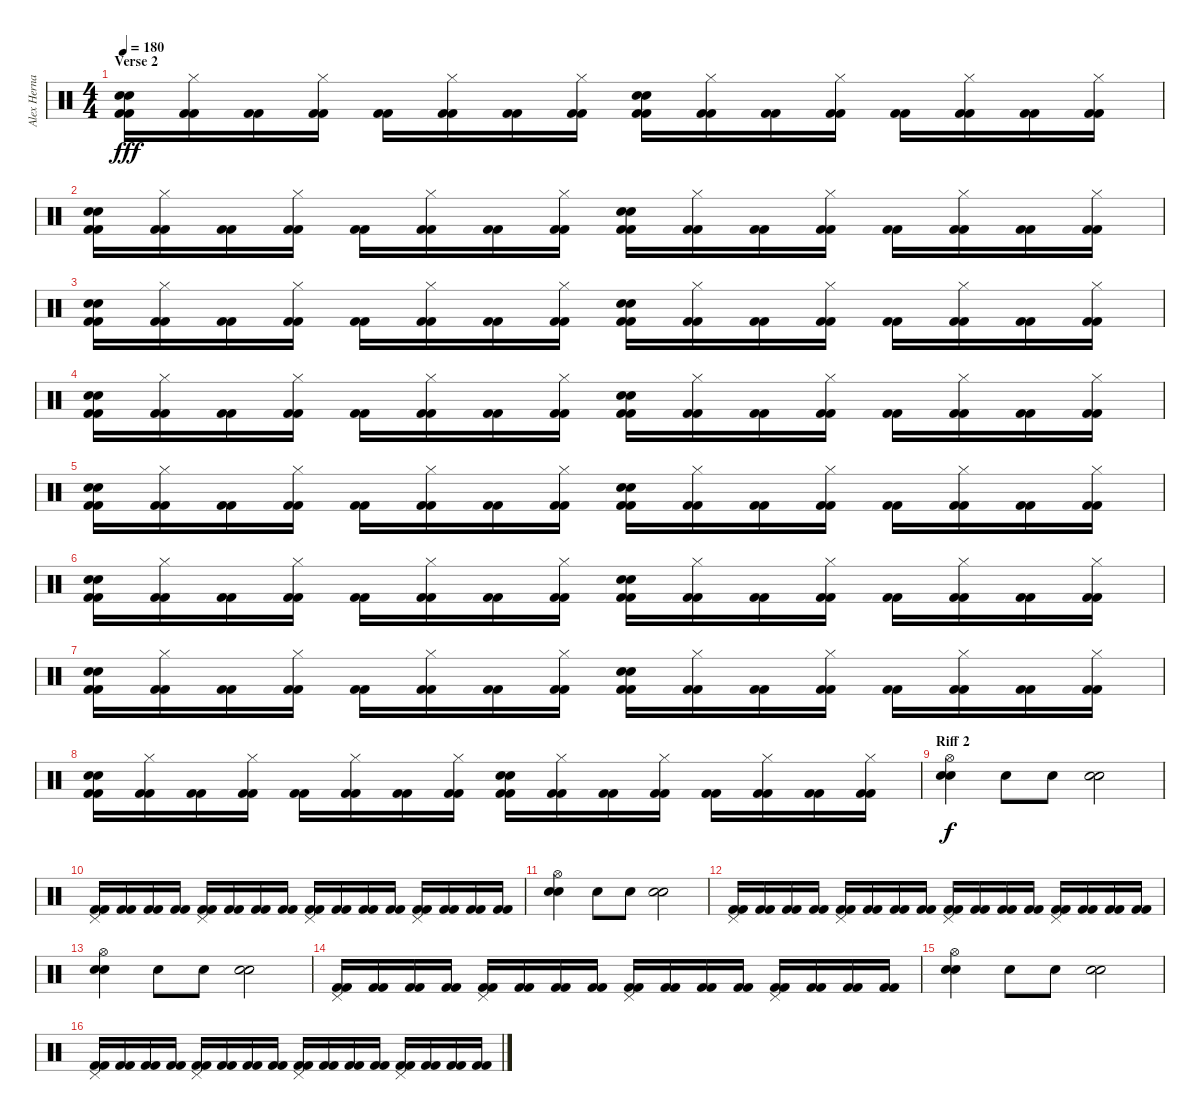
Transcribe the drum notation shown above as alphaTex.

\track ("Alex Hernandez" "Alex Herna") {instrument percussion}
\staff {score}
\articulation defaults
\ts (4 4)
\section ("" "Verse 2")
\tempo 180
\clef neutral
\ks c
("Snare (hit) 2" "Snare (hit) 2" "Kick (hit) 2" "Kick (hit) 2").16{dy fff} ("Hi-Hat (closed)" "Kick (hit) 2" "Kick (hit) 2").16 ("Kick (hit) 2" "Kick (hit) 2").16 ("Hi-Hat (closed)" "Kick (hit) 2" "Kick (hit) 2").16 ("Kick (hit) 2" "Kick (hit) 2").16 ("Hi-Hat (closed)" "Kick (hit) 2" "Kick (hit) 2").16 ("Kick (hit) 2" "Kick (hit) 2").16 ("Hi-Hat (closed)" "Kick (hit) 2" "Kick (hit) 2").16 ("Snare (hit) 2" "Snare (hit) 2" "Kick (hit) 2" "Kick (hit) 2").16 ("Hi-Hat (closed)" "Kick (hit) 2" "Kick (hit) 2").16 ("Kick (hit) 2" "Kick (hit) 2").16 ("Hi-Hat (closed)" "Kick (hit) 2" "Kick (hit) 2").16 ("Kick (hit) 2" "Kick (hit) 2").16 ("Hi-Hat (closed)" "Kick (hit) 2" "Kick (hit) 2").16 ("Kick (hit) 2" "Kick (hit) 2").16 ("Hi-Hat (closed)" "Kick (hit) 2" "Kick (hit) 2").16 |
("Snare (hit) 2" "Snare (hit) 2" "Kick (hit) 2" "Kick (hit) 2").16 ("Hi-Hat (closed)" "Kick (hit) 2" "Kick (hit) 2").16 ("Kick (hit) 2" "Kick (hit) 2").16 ("Hi-Hat (closed)" "Kick (hit) 2" "Kick (hit) 2").16 ("Kick (hit) 2" "Kick (hit) 2").16 ("Hi-Hat (closed)" "Kick (hit) 2" "Kick (hit) 2").16 ("Kick (hit) 2" "Kick (hit) 2").16 ("Hi-Hat (closed)" "Kick (hit) 2" "Kick (hit) 2").16 ("Snare (hit) 2" "Snare (hit) 2" "Kick (hit) 2" "Kick (hit) 2").16 ("Hi-Hat (closed)" "Kick (hit) 2" "Kick (hit) 2").16 ("Kick (hit) 2" "Kick (hit) 2").16 ("Hi-Hat (closed)" "Kick (hit) 2" "Kick (hit) 2").16 ("Kick (hit) 2" "Kick (hit) 2").16 ("Hi-Hat (closed)" "Kick (hit) 2" "Kick (hit) 2").16 ("Kick (hit) 2" "Kick (hit) 2").16 ("Hi-Hat (closed)" "Kick (hit) 2" "Kick (hit) 2").16 |
("Snare (hit) 2" "Snare (hit) 2" "Kick (hit) 2" "Kick (hit) 2").16 ("Hi-Hat (closed)" "Kick (hit) 2" "Kick (hit) 2").16 ("Kick (hit) 2" "Kick (hit) 2").16 ("Hi-Hat (closed)" "Kick (hit) 2" "Kick (hit) 2").16 ("Kick (hit) 2" "Kick (hit) 2").16 ("Hi-Hat (closed)" "Kick (hit) 2" "Kick (hit) 2").16 ("Kick (hit) 2" "Kick (hit) 2").16 ("Hi-Hat (closed)" "Kick (hit) 2" "Kick (hit) 2").16 ("Snare (hit) 2" "Snare (hit) 2" "Kick (hit) 2" "Kick (hit) 2").16 ("Hi-Hat (closed)" "Kick (hit) 2" "Kick (hit) 2").16 ("Kick (hit) 2" "Kick (hit) 2").16 ("Hi-Hat (closed)" "Kick (hit) 2" "Kick (hit) 2").16 ("Kick (hit) 2" "Kick (hit) 2").16 ("Hi-Hat (closed)" "Kick (hit) 2" "Kick (hit) 2").16 ("Kick (hit) 2" "Kick (hit) 2").16 ("Hi-Hat (closed)" "Kick (hit) 2" "Kick (hit) 2").16 |
("Snare (hit) 2" "Snare (hit) 2" "Kick (hit) 2" "Kick (hit) 2").16 ("Hi-Hat (closed)" "Kick (hit) 2" "Kick (hit) 2").16 ("Kick (hit) 2" "Kick (hit) 2").16 ("Hi-Hat (closed)" "Kick (hit) 2" "Kick (hit) 2").16 ("Kick (hit) 2" "Kick (hit) 2").16 ("Hi-Hat (closed)" "Kick (hit) 2" "Kick (hit) 2").16 ("Kick (hit) 2" "Kick (hit) 2").16 ("Hi-Hat (closed)" "Kick (hit) 2" "Kick (hit) 2").16 ("Snare (hit) 2" "Snare (hit) 2" "Kick (hit) 2" "Kick (hit) 2").16 ("Hi-Hat (closed)" "Kick (hit) 2" "Kick (hit) 2").16 ("Kick (hit) 2" "Kick (hit) 2").16 ("Hi-Hat (closed)" "Kick (hit) 2" "Kick (hit) 2").16 ("Kick (hit) 2" "Kick (hit) 2").16 ("Hi-Hat (closed)" "Kick (hit) 2" "Kick (hit) 2").16 ("Kick (hit) 2" "Kick (hit) 2").16 ("Hi-Hat (closed)" "Kick (hit) 2" "Kick (hit) 2").16 |
("Snare (hit) 2" "Snare (hit) 2" "Kick (hit) 2" "Kick (hit) 2").16 ("Hi-Hat (closed)" "Kick (hit) 2" "Kick (hit) 2").16 ("Kick (hit) 2" "Kick (hit) 2").16 ("Hi-Hat (closed)" "Kick (hit) 2" "Kick (hit) 2").16 ("Kick (hit) 2" "Kick (hit) 2").16 ("Hi-Hat (closed)" "Kick (hit) 2" "Kick (hit) 2").16 ("Kick (hit) 2" "Kick (hit) 2").16 ("Hi-Hat (closed)" "Kick (hit) 2" "Kick (hit) 2").16 ("Snare (hit) 2" "Snare (hit) 2" "Kick (hit) 2" "Kick (hit) 2").16 ("Hi-Hat (closed)" "Kick (hit) 2" "Kick (hit) 2").16 ("Kick (hit) 2" "Kick (hit) 2").16 ("Hi-Hat (closed)" "Kick (hit) 2" "Kick (hit) 2").16 ("Kick (hit) 2" "Kick (hit) 2").16 ("Hi-Hat (closed)" "Kick (hit) 2" "Kick (hit) 2").16 ("Kick (hit) 2" "Kick (hit) 2").16 ("Hi-Hat (closed)" "Kick (hit) 2" "Kick (hit) 2").16 |
("Snare (hit) 2" "Snare (hit) 2" "Kick (hit) 2" "Kick (hit) 2").16 ("Hi-Hat (closed)" "Kick (hit) 2" "Kick (hit) 2").16 ("Kick (hit) 2" "Kick (hit) 2").16 ("Hi-Hat (closed)" "Kick (hit) 2" "Kick (hit) 2").16 ("Kick (hit) 2" "Kick (hit) 2").16 ("Hi-Hat (closed)" "Kick (hit) 2" "Kick (hit) 2").16 ("Kick (hit) 2" "Kick (hit) 2").16 ("Hi-Hat (closed)" "Kick (hit) 2" "Kick (hit) 2").16 ("Snare (hit) 2" "Snare (hit) 2" "Kick (hit) 2" "Kick (hit) 2").16 ("Hi-Hat (closed)" "Kick (hit) 2" "Kick (hit) 2").16 ("Kick (hit) 2" "Kick (hit) 2").16 ("Hi-Hat (closed)" "Kick (hit) 2" "Kick (hit) 2").16 ("Kick (hit) 2" "Kick (hit) 2").16 ("Hi-Hat (closed)" "Kick (hit) 2" "Kick (hit) 2").16 ("Kick (hit) 2" "Kick (hit) 2").16 ("Hi-Hat (closed)" "Kick (hit) 2" "Kick (hit) 2").16 |
("Snare (hit) 2" "Snare (hit) 2" "Kick (hit) 2" "Kick (hit) 2").16 ("Hi-Hat (closed)" "Kick (hit) 2" "Kick (hit) 2").16 ("Kick (hit) 2" "Kick (hit) 2").16 ("Hi-Hat (closed)" "Kick (hit) 2" "Kick (hit) 2").16 ("Kick (hit) 2" "Kick (hit) 2").16 ("Hi-Hat (closed)" "Kick (hit) 2" "Kick (hit) 2").16 ("Kick (hit) 2" "Kick (hit) 2").16 ("Hi-Hat (closed)" "Kick (hit) 2" "Kick (hit) 2").16 ("Snare (hit) 2" "Snare (hit) 2" "Kick (hit) 2" "Kick (hit) 2").16 ("Hi-Hat (closed)" "Kick (hit) 2" "Kick (hit) 2").16 ("Kick (hit) 2" "Kick (hit) 2").16 ("Hi-Hat (closed)" "Kick (hit) 2" "Kick (hit) 2").16 ("Kick (hit) 2" "Kick (hit) 2").16 ("Hi-Hat (closed)" "Kick (hit) 2" "Kick (hit) 2").16 ("Kick (hit) 2" "Kick (hit) 2").16 ("Hi-Hat (closed)" "Kick (hit) 2" "Kick (hit) 2").16 |
("Snare (hit) 2" "Snare (hit) 2" "Kick (hit) 2" "Kick (hit) 2").16 ("Hi-Hat (closed)" "Kick (hit) 2" "Kick (hit) 2").16 ("Kick (hit) 2" "Kick (hit) 2").16 ("Hi-Hat (closed)" "Kick (hit) 2" "Kick (hit) 2").16 ("Kick (hit) 2" "Kick (hit) 2").16 ("Hi-Hat (closed)" "Kick (hit) 2" "Kick (hit) 2").16 ("Kick (hit) 2" "Kick (hit) 2").16 ("Hi-Hat (closed)" "Kick (hit) 2" "Kick (hit) 2").16 ("Snare (hit) 2" "Snare (hit) 2" "Kick (hit) 2" "Kick (hit) 2").16 ("Hi-Hat (closed)" "Kick (hit) 2" "Kick (hit) 2").16 ("Kick (hit) 2" "Kick (hit) 2").16 ("Hi-Hat (closed)" "Kick (hit) 2" "Kick (hit) 2").16 ("Kick (hit) 2" "Kick (hit) 2").16 ("Hi-Hat (closed)" "Kick (hit) 2" "Kick (hit) 2").16 ("Kick (hit) 2" "Kick (hit) 2").16 ("Hi-Hat (closed)" "Kick (hit) 2" "Kick (hit) 2").16 |
\section ("" "Riff 2")
("Hi-Hat (open)" "Snare (hit) 2" "Snare (hit) 2").4{dy f} "Snare (hit) 2".8 "Snare (hit) 2".8 ("Snare (hit) 2" "Snare (hit) 2").2 |
("Pedal Hi-Hat (hit)" "Kick (hit) 2" "Kick (hit) 2").16 ("Kick (hit) 2" "Kick (hit) 2").16 ("Kick (hit) 2" "Kick (hit) 2").16 ("Kick (hit) 2" "Kick (hit) 2").16 ("Pedal Hi-Hat (hit)" "Kick (hit) 2" "Kick (hit) 2").16 ("Kick (hit) 2" "Kick (hit) 2").16 ("Kick (hit) 2" "Kick (hit) 2").16 ("Kick (hit) 2" "Kick (hit) 2").16 ("Pedal Hi-Hat (hit)" "Kick (hit) 2" "Kick (hit) 2").16 ("Kick (hit) 2" "Kick (hit) 2").16 ("Kick (hit) 2" "Kick (hit) 2").16 ("Kick (hit) 2" "Kick (hit) 2").16 ("Pedal Hi-Hat (hit)" "Kick (hit) 2" "Kick (hit) 2").16 ("Kick (hit) 2" "Kick (hit) 2").16 ("Kick (hit) 2" "Kick (hit) 2").16 ("Kick (hit) 2" "Kick (hit) 2").16 |
("Hi-Hat (open)" "Snare (hit) 2" "Snare (hit) 2").4 "Snare (hit) 2".8 "Snare (hit) 2".8 ("Snare (hit) 2" "Snare (hit) 2").2 |
("Pedal Hi-Hat (hit)" "Kick (hit) 2" "Kick (hit) 2").16 ("Kick (hit) 2" "Kick (hit) 2").16 ("Kick (hit) 2" "Kick (hit) 2").16 ("Kick (hit) 2" "Kick (hit) 2").16 ("Pedal Hi-Hat (hit)" "Kick (hit) 2" "Kick (hit) 2").16 ("Kick (hit) 2" "Kick (hit) 2").16 ("Kick (hit) 2" "Kick (hit) 2").16 ("Kick (hit) 2" "Kick (hit) 2").16 ("Pedal Hi-Hat (hit)" "Kick (hit) 2" "Kick (hit) 2").16 ("Kick (hit) 2" "Kick (hit) 2").16 ("Kick (hit) 2" "Kick (hit) 2").16 ("Kick (hit) 2" "Kick (hit) 2").16 ("Pedal Hi-Hat (hit)" "Kick (hit) 2" "Kick (hit) 2").16 ("Kick (hit) 2" "Kick (hit) 2").16 ("Kick (hit) 2" "Kick (hit) 2").16 ("Kick (hit) 2" "Kick (hit) 2").16 |
("Hi-Hat (open)" "Snare (hit) 2" "Snare (hit) 2").4 "Snare (hit) 2".8 "Snare (hit) 2".8 ("Snare (hit) 2" "Snare (hit) 2").2 |
("Pedal Hi-Hat (hit)" "Kick (hit) 2" "Kick (hit) 2").16 ("Kick (hit) 2" "Kick (hit) 2").16 ("Kick (hit) 2" "Kick (hit) 2").16 ("Kick (hit) 2" "Kick (hit) 2").16 ("Pedal Hi-Hat (hit)" "Kick (hit) 2" "Kick (hit) 2").16 ("Kick (hit) 2" "Kick (hit) 2").16 ("Kick (hit) 2" "Kick (hit) 2").16 ("Kick (hit) 2" "Kick (hit) 2").16 ("Pedal Hi-Hat (hit)" "Kick (hit) 2" "Kick (hit) 2").16 ("Kick (hit) 2" "Kick (hit) 2").16 ("Kick (hit) 2" "Kick (hit) 2").16 ("Kick (hit) 2" "Kick (hit) 2").16 ("Pedal Hi-Hat (hit)" "Kick (hit) 2" "Kick (hit) 2").16 ("Kick (hit) 2" "Kick (hit) 2").16 ("Kick (hit) 2" "Kick (hit) 2").16 ("Kick (hit) 2" "Kick (hit) 2").16 |
("Hi-Hat (open)" "Snare (hit) 2" "Snare (hit) 2").4 "Snare (hit) 2".8 "Snare (hit) 2".8 ("Snare (hit) 2" "Snare (hit) 2").2 |
("Pedal Hi-Hat (hit)" "Kick (hit) 2" "Kick (hit) 2").16 ("Kick (hit) 2" "Kick (hit) 2").16 ("Kick (hit) 2" "Kick (hit) 2").16 ("Kick (hit) 2" "Kick (hit) 2").16 ("Pedal Hi-Hat (hit)" "Kick (hit) 2" "Kick (hit) 2").16 ("Kick (hit) 2" "Kick (hit) 2").16 ("Kick (hit) 2" "Kick (hit) 2").16 ("Kick (hit) 2" "Kick (hit) 2").16 ("Pedal Hi-Hat (hit)" "Kick (hit) 2" "Kick (hit) 2").16 ("Kick (hit) 2" "Kick (hit) 2").16 ("Kick (hit) 2" "Kick (hit) 2").16 ("Kick (hit) 2" "Kick (hit) 2").16 ("Pedal Hi-Hat (hit)" "Kick (hit) 2" "Kick (hit) 2").16 ("Kick (hit) 2" "Kick (hit) 2").16 ("Kick (hit) 2" "Kick (hit) 2").16 ("Kick (hit) 2" "Kick (hit) 2").16
